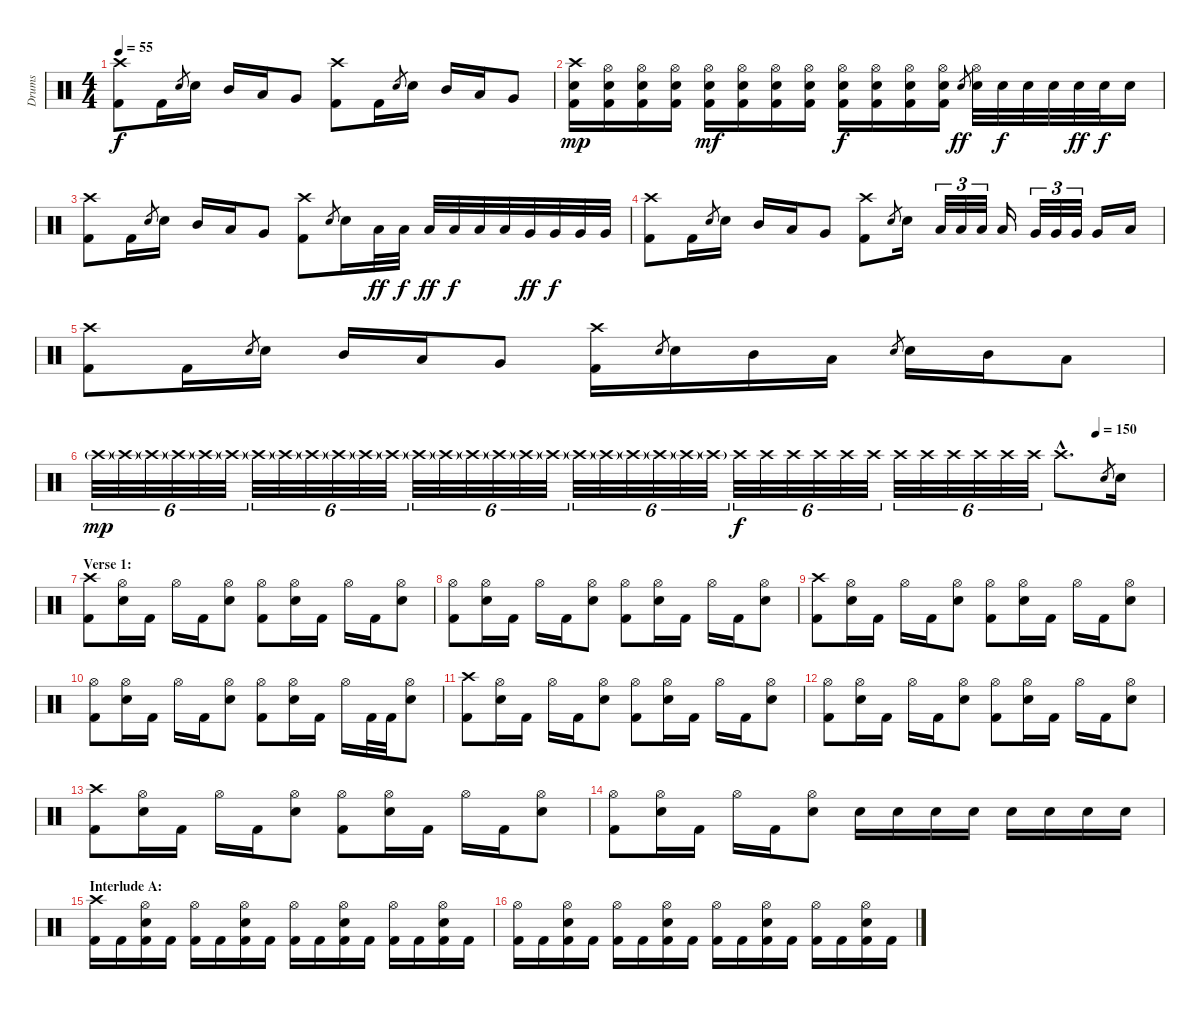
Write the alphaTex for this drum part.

\track ("Drums" "Drums") {instrument percussion}
\staff {score}
\articulation defaults
\ts (4 4)
\tempo 55
\clef neutral
\ks c
("Crash high (hit)" "Kick (hit) 2").8{dy f} "Kick (hit) 2".16 "Snare (hit) 2".8{gr} "Snare (hit) 2".16 "Mid Tom (hit)".16 "Low Tom (hit)".16 "Very Low Tom (hit)".8 ("Crash high (hit)" "Kick (hit) 2").8 "Kick (hit) 2".16 "Snare (hit) 2".8{gr} "Snare (hit) 2".16 "Mid Tom (hit)".16 "Low Tom (hit)".16 "Very Low Tom (hit)".8 |
("Crash high (hit)" "Snare (hit) 2" "Kick (hit) 2").16{dy mp} ("Hi-Hat (open)" "Snare (hit) 2" "Kick (hit) 2").16 ("Hi-Hat (open)" "Snare (hit) 2" "Kick (hit) 2").16 ("Hi-Hat (open)" "Snare (hit) 2" "Kick (hit) 2").16 ("Hi-Hat (open)" "Snare (hit) 2" "Kick (hit) 2").16{dy mf} ("Hi-Hat (open)" "Snare (hit) 2" "Kick (hit) 2").16 ("Hi-Hat (open)" "Snare (hit) 2" "Kick (hit) 2").16 ("Hi-Hat (open)" "Snare (hit) 2" "Kick (hit) 2").16 ("Hi-Hat (open)" "Snare (hit) 2" "Kick (hit) 2").16{dy f} ("Hi-Hat (open)" "Snare (hit) 2" "Kick (hit) 2").16 ("Hi-Hat (open)" "Snare (hit) 2" "Kick (hit) 2").16 ("Hi-Hat (open)" "Snare (hit) 2" "Kick (hit) 2").16 "Snare (hit) 2".8{gr dy ff} ("Hi-Hat (open)" "Snare (hit) 2").32 "Snare (hit) 2".32{dy f} "Snare (hit) 2".32 "Snare (hit) 2".32 "Snare (hit) 2".32{dy ff} "Snare (hit) 2".32{dy f} "Snare (hit) 2".16 |
("Crash high (hit)" "Kick (hit) 2").8 "Kick (hit) 2".16 "Snare (hit) 2".8{gr} "Snare (hit) 2".16 "Mid Tom (hit)".16 "Low Tom (hit)".16 "Very Low Tom (hit)".8 ("Crash high (hit)" "Kick (hit) 2").8 "Snare (hit) 2".8{gr} "Snare (hit) 2".16 "Low Tom (hit)".32{dy ff} "Low Tom (hit)".32{dy f} "Low Tom (hit)".32{dy ff} "Low Tom (hit)".32{dy f} "Low Tom (hit)".32 "Low Tom (hit)".32 "Very Low Tom (hit)".32{dy ff} "Very Low Tom (hit)".32{dy f} "Very Low Tom (hit)".32 "Very Low Tom (hit)".32 |
("Crash high (hit)" "Kick (hit) 2").8 "Kick (hit) 2".16 "Snare (hit) 2".8{gr} "Snare (hit) 2".16 "Mid Tom (hit)".16 "Low Tom (hit)".16 "Very Low Tom (hit)".8 ("Crash high (hit)" "Kick (hit) 2").8 "Snare (hit) 2".8{gr} "Snare (hit) 2".16 "Low Tom (hit)".32{tu (3 2)} "Low Tom (hit)".32{tu (3 2)} "Low Tom (hit)".32{tu (3 2)} "Low Tom (hit)".16 "Very Low Tom (hit)".32{tu (3 2)} "Very Low Tom (hit)".32{tu (3 2)} "Very Low Tom (hit)".32{tu (3 2)} "Very Low Tom (hit)".16 "Low Floor Tom (hit)".16 |
("Crash high (hit)" "Kick (hit) 2").8 "Kick (hit) 2".16 "Snare (hit) 2".8{gr} "Snare (hit) 2".16 "Mid Tom (hit)".16 "Low Tom (hit)".16 "Very Low Tom (hit)".8 ("Crash high (hit)" "Kick (hit) 2").16 "Snare (hit) 2".8{gr} "Snare (hit) 2".16 "Mid Tom (hit)".16 "Low Tom (hit)".16 "Snare (hit) 2".8{gr} "Snare (hit) 2".16 "Mid Tom (hit)".16 "Low Tom (hit)".8 |
\tempo (150 0.9375)
"Crash high (hit)"{g}.32{tu (6 4) dy mp} "Crash high (hit)"{g}.32{tu (6 4)} "Crash high (hit)"{g}.32{tu (6 4)} "Crash high (hit)"{g}.32{tu (6 4)} "Crash high (hit)"{g}.32{tu (6 4)} "Crash high (hit)"{g}.32{tu (6 4)} "Crash high (hit)"{g}.32{tu (6 4)} "Crash high (hit)"{g}.32{tu (6 4)} "Crash high (hit)"{g}.32{tu (6 4)} "Crash high (hit)"{g}.32{tu (6 4)} "Crash high (hit)"{g}.32{tu (6 4)} "Crash high (hit)"{g}.32{tu (6 4)} "Crash high (hit)"{g}.32{tu (6 4)} "Crash high (hit)"{g}.32{tu (6 4)} "Crash high (hit)"{g}.32{tu (6 4)} "Crash high (hit)"{g}.32{tu (6 4)} "Crash high (hit)"{g}.32{tu (6 4)} "Crash high (hit)"{g}.32{tu (6 4)} "Crash high (hit)"{g}.32{tu (6 4)} "Crash high (hit)"{g}.32{tu (6 4)} "Crash high (hit)"{g}.32{tu (6 4)} "Crash high (hit)"{g}.32{tu (6 4)} "Crash high (hit)"{g}.32{tu (6 4)} "Crash high (hit)"{g}.32{tu (6 4)} "Crash high (hit)".32{tu (6 4) dy f} "Crash high (hit)".32{tu (6 4)} "Crash high (hit)".32{tu (6 4)} "Crash high (hit)".32{tu (6 4)} "Crash high (hit)".32{tu (6 4)} "Crash high (hit)".32{tu (6 4)} "Crash high (hit)".32{tu (6 4)} "Crash high (hit)".32{tu (6 4)} "Crash high (hit)".32{tu (6 4)} "Crash high (hit)".32{tu (6 4)} "Crash high (hit)".32{tu (6 4)} "Crash high (hit)".32{tu (6 4)} "Crash high (hit)"{hac}.8{d} "Snare (hit) 2".8{gr} "Snare (hit) 2".16 |
\section ("" "Verse 1:")
("Crash high (hit)" "Kick (hit) 2").8 ("Hi-Hat (open)" "Snare (hit) 2").16 "Kick (hit) 2".16 "Hi-Hat (open)".16 "Kick (hit) 2".16 ("Hi-Hat (open)" "Snare (hit) 2").8 ("Hi-Hat (open)" "Kick (hit) 2").8 ("Hi-Hat (open)" "Snare (hit) 2").16 "Kick (hit) 2".16 "Hi-Hat (open)".16 "Kick (hit) 2".16 ("Hi-Hat (open)" "Snare (hit) 2").8 |
("Hi-Hat (open)" "Kick (hit) 2").8 ("Hi-Hat (open)" "Snare (hit) 2").16 "Kick (hit) 2".16 "Hi-Hat (open)".16 "Kick (hit) 2".16 ("Hi-Hat (open)" "Snare (hit) 2").8 ("Hi-Hat (open)" "Kick (hit) 2").8 ("Hi-Hat (open)" "Snare (hit) 2").16 "Kick (hit) 2".16 "Hi-Hat (open)".16 "Kick (hit) 2".16 ("Hi-Hat (open)" "Snare (hit) 2").8 |
("Crash high (hit)" "Kick (hit) 2").8 ("Hi-Hat (open)" "Snare (hit) 2").16 "Kick (hit) 2".16 "Hi-Hat (open)".16 "Kick (hit) 2".16 ("Hi-Hat (open)" "Snare (hit) 2").8 ("Hi-Hat (open)" "Kick (hit) 2").8 ("Hi-Hat (open)" "Snare (hit) 2").16 "Kick (hit) 2".16 "Hi-Hat (open)".16 "Kick (hit) 2".16 ("Hi-Hat (open)" "Snare (hit) 2").8 |
("Hi-Hat (open)" "Kick (hit) 2").8 ("Hi-Hat (open)" "Snare (hit) 2").16 "Kick (hit) 2".16 "Hi-Hat (open)".16 "Kick (hit) 2".16 ("Hi-Hat (open)" "Snare (hit) 2").8 ("Hi-Hat (open)" "Kick (hit) 2").8 ("Hi-Hat (open)" "Snare (hit) 2").16 "Kick (hit) 2".16 "Hi-Hat (open)".16 "Kick (hit) 2".32 "Kick (hit) 2".32 ("Hi-Hat (open)" "Snare (hit) 2").8 |
("Crash high (hit)" "Kick (hit) 2").8 ("Hi-Hat (open)" "Snare (hit) 2").16 "Kick (hit) 2".16 "Hi-Hat (open)".16 "Kick (hit) 2".16 ("Hi-Hat (open)" "Snare (hit) 2").8 ("Hi-Hat (open)" "Kick (hit) 2").8 ("Hi-Hat (open)" "Snare (hit) 2").16 "Kick (hit) 2".16 "Hi-Hat (open)".16 "Kick (hit) 2".16 ("Hi-Hat (open)" "Snare (hit) 2").8 |
("Hi-Hat (open)" "Kick (hit) 2").8 ("Hi-Hat (open)" "Snare (hit) 2").16 "Kick (hit) 2".16 "Hi-Hat (open)".16 "Kick (hit) 2".16 ("Hi-Hat (open)" "Snare (hit) 2").8 ("Hi-Hat (open)" "Kick (hit) 2").8 ("Hi-Hat (open)" "Snare (hit) 2").16 "Kick (hit) 2".16 "Hi-Hat (open)".16 "Kick (hit) 2".16 ("Hi-Hat (open)" "Snare (hit) 2").8 |
("Crash high (hit)" "Kick (hit) 2").8 ("Hi-Hat (open)" "Snare (hit) 2").16 "Kick (hit) 2".16 "Hi-Hat (open)".16 "Kick (hit) 2".16 ("Hi-Hat (open)" "Snare (hit) 2").8 ("Hi-Hat (open)" "Kick (hit) 2").8 ("Hi-Hat (open)" "Snare (hit) 2").16 "Kick (hit) 2".16 "Hi-Hat (open)".16 "Kick (hit) 2".16 ("Hi-Hat (open)" "Snare (hit) 2").8 |
("Hi-Hat (open)" "Kick (hit) 2").8 ("Hi-Hat (open)" "Snare (hit) 2").16 "Kick (hit) 2".16 "Hi-Hat (open)".16 "Kick (hit) 2".16 ("Hi-Hat (open)" "Snare (hit) 2").8 "Snare (hit) 2".16 "Snare (hit) 2".16 "Snare (hit) 2".16 "Snare (hit) 2".16 "Snare (hit) 2".16 "Snare (hit) 2".16 "Snare (hit) 2".16 "Snare (hit) 2".16 |
\section ("" "Interlude A:")
("Crash high (hit)" "Kick (hit) 2").16 "Kick (hit) 2".16 ("Hi-Hat (open)" "Snare (hit) 2" "Kick (hit) 2").16 "Kick (hit) 2".16 ("Hi-Hat (open)" "Kick (hit) 2").16 "Kick (hit) 2".16 ("Hi-Hat (open)" "Snare (hit) 2" "Kick (hit) 2").16 "Kick (hit) 2".16 ("Hi-Hat (open)" "Kick (hit) 2").16 "Kick (hit) 2".16 ("Hi-Hat (open)" "Snare (hit) 2" "Kick (hit) 2").16 "Kick (hit) 2".16 ("Hi-Hat (open)" "Kick (hit) 2").16 "Kick (hit) 2".16 ("Hi-Hat (open)" "Snare (hit) 2" "Kick (hit) 2").16 "Kick (hit) 2".16 |
("Hi-Hat (open)" "Kick (hit) 2").16 "Kick (hit) 2".16 ("Hi-Hat (open)" "Snare (hit) 2" "Kick (hit) 2").16 "Kick (hit) 2".16 ("Hi-Hat (open)" "Kick (hit) 2").16 "Kick (hit) 2".16 ("Hi-Hat (open)" "Snare (hit) 2" "Kick (hit) 2").16 "Kick (hit) 2".16 ("Hi-Hat (open)" "Kick (hit) 2").16 "Kick (hit) 2".16 ("Hi-Hat (open)" "Snare (hit) 2" "Kick (hit) 2").16 "Kick (hit) 2".16 ("Hi-Hat (open)" "Kick (hit) 2").16 "Kick (hit) 2".16 ("Hi-Hat (open)" "Snare (hit) 2" "Kick (hit) 2").16 "Kick (hit) 2".16
